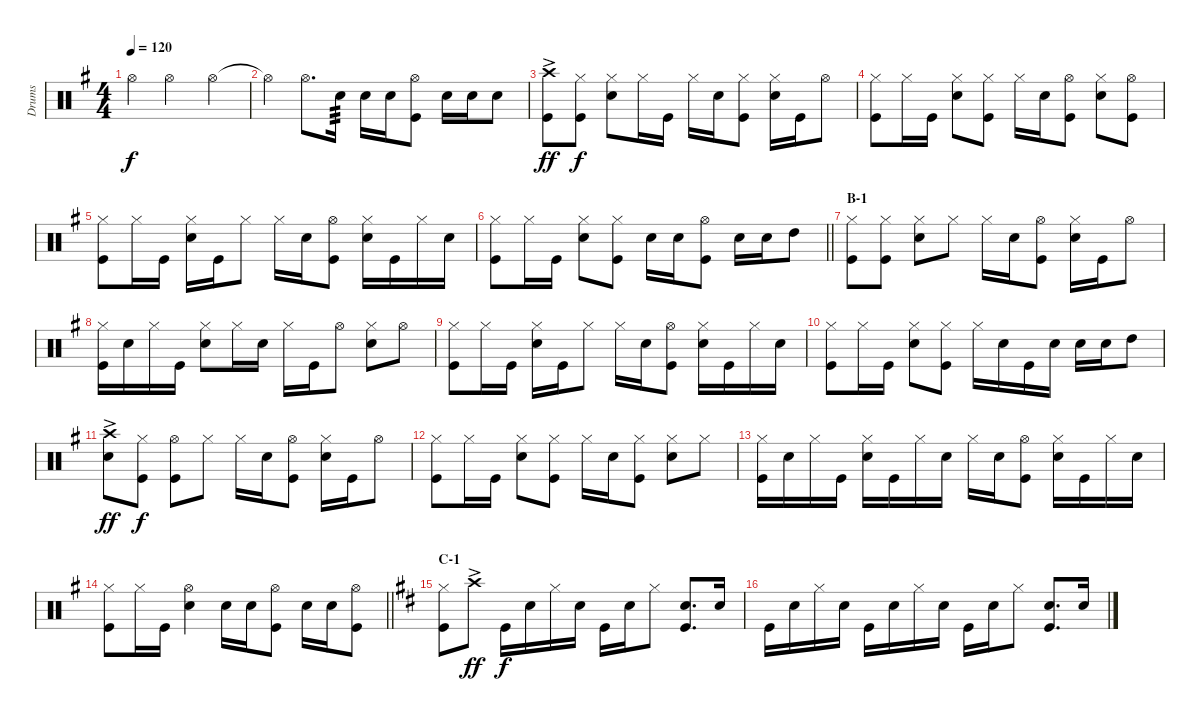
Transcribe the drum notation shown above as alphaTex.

\track ("Drums" "Drums") {instrument percussion}
\staff {score}
\articulation defaults
\ts (4 4)
\tempo 120
\clef neutral
\ks g "Hi-Hat (open)"{t}.4{dy f} "Hi-Hat (open)".2 "Hi-Hat (open)".4
|
"Hi-Hat (open)"{t}.4 "Hi-Hat (open)".8{d} "Snare (hit) 2".16{tp 3} "Snare (hit) 2".16 "Snare (hit) 2".16 ("Hi-Hat (open)" "Kick (hit)").8 "Snare (hit) 2".16 "Snare (hit) 2".16 "Snare (hit) 2".8 |
("Crash high (hit)"{ac} "Kick (hit)").8{dy ff} ("Kick (hit)" "Hi-Hat (closed)").8{dy f} ("Hi-Hat (closed)" "Snare (hit) 2").8 "Hi-Hat (closed)".16 "Kick (hit)".16 "Hi-Hat (closed)".16 "Snare (hit) 2".16 ("Hi-Hat (closed)" "Kick (hit)").8 ("Hi-Hat (closed)" "Snare (hit) 2").16 "Kick (hit)".16 "Hi-Hat (open)".8 |
("Hi-Hat (closed)" "Kick (hit)").8 "Hi-Hat (closed)".16 "Kick (hit)".16 ("Hi-Hat (closed)" "Snare (hit) 2").8 ("Kick (hit)" "Hi-Hat (closed)").8 "Hi-Hat (closed)".16 "Snare (hit) 2".16 ("Hi-Hat (open)" "Kick (hit)").8 ("Hi-Hat (closed)" "Snare (hit) 2").8 ("Kick (hit)" "Hi-Hat (open)").8 |
("Kick (hit)" "Hi-Hat (closed)").8 "Hi-Hat (closed)".16 "Kick (hit)".16 ("Hi-Hat (closed)" "Snare (hit) 2").16 "Kick (hit)".16 "Hi-Hat (closed)".8 "Hi-Hat (closed)".16 "Snare (hit) 2".16 ("Hi-Hat (open)" "Kick (hit)").8 ("Hi-Hat (closed)" "Snare (hit) 2").16 "Kick (hit)".16 "Hi-Hat (closed)".16 "Snare (hit) 2".16 |
\barLineRight lightlight
("Hi-Hat (closed)" "Kick (hit)").8 "Hi-Hat (closed)".16 "Kick (hit)".16 ("Hi-Hat (closed)" "Snare (hit) 2").8 ("Hi-Hat (closed)" "Kick (hit)").8 "Snare (hit) 2".16 "Snare (hit) 2".16 ("Hi-Hat (open)" "Kick (hit)").8 "Snare (hit) 2".16 "Snare (hit) 2".16 "High Tom (hit)".8 |
\section ("" "B-1")
("Hi-Hat (closed)" "Kick (hit)").8 ("Hi-Hat (closed)" "Kick (hit)").8 ("Hi-Hat (closed)" "Snare (hit) 2").8 "Hi-Hat (closed)".8 "Hi-Hat (closed)".16 "Snare (hit) 2".16 ("Hi-Hat (open)" "Kick (hit)").8 ("Hi-Hat (closed)" "Snare (hit) 2").16 "Kick (hit)".16 "Hi-Hat (open)".8 |
("Hi-Hat (closed)" "Kick (hit)").16 "Snare (hit) 2".16 "Hi-Hat (closed)".16 "Kick (hit)".16 ("Hi-Hat (closed)" "Snare (hit) 2").8 "Hi-Hat (closed)".16 "Snare (hit) 2".16 "Hi-Hat (closed)".16 "Kick (hit)".16 "Hi-Hat (open)".8 ("Hi-Hat (closed)" "Snare (hit) 2").8 "Hi-Hat (open)".8 |
("Hi-Hat (closed)" "Kick (hit)").8 "Hi-Hat (closed)".16 "Kick (hit)".16 ("Hi-Hat (closed)" "Snare (hit) 2").16 "Kick (hit)".16 "Hi-Hat (closed)".8 "Hi-Hat (closed)".16 "Snare (hit) 2".16 ("Hi-Hat (open)" "Kick (hit)").8 ("Hi-Hat (closed)" "Snare (hit) 2").16 "Kick (hit)".16 "Hi-Hat (closed)".16 "Snare (hit) 2".16 |
("Hi-Hat (closed)" "Kick (hit)").8 "Hi-Hat (closed)".16 "Kick (hit)".16 ("Hi-Hat (closed)" "Snare (hit) 2").8 ("Hi-Hat (closed)" "Kick (hit)").8 "Hi-Hat (closed)".16 "Snare (hit) 2".16 "Kick (hit)".16 "Snare (hit) 2".16 "Snare (hit) 2".16 "Snare (hit) 2".16 "High Tom (hit)".8 |
("Crash high (hit)"{ac} "Snare (hit) 2").8{dy ff} ("Hi-Hat (closed)" "Kick (hit)").8{dy f} ("Kick (hit)" "Hi-Hat (open)").8 "Hi-Hat (closed)".8 "Hi-Hat (closed)".16 "Snare (hit) 2".16 ("Kick (hit)" "Hi-Hat (open)").8 ("Hi-Hat (closed)" "Snare (hit) 2").16 "Kick (hit)".16 "Hi-Hat (open)".8 |
("Hi-Hat (closed)" "Kick (hit)").8 "Hi-Hat (closed)".16 "Kick (hit)".16 ("Hi-Hat (closed)" "Snare (hit) 2").8 ("Hi-Hat (closed)" "Kick (hit)").8 "Hi-Hat (closed)".16 "Snare (hit) 2".16 ("Hi-Hat (closed)" "Kick (hit)").8 ("Hi-Hat (closed)" "Snare (hit) 2").8 "Hi-Hat (closed)".8 |
("Hi-Hat (closed)" "Kick (hit)").16 "Snare (hit) 2".16 "Hi-Hat (closed)".16 "Kick (hit)".16 ("Hi-Hat (closed)" "Snare (hit) 2").16 "Kick (hit)".16 "Hi-Hat (closed)".16 "Snare (hit) 2".16 "Hi-Hat (closed)".16 "Snare (hit) 2".16 ("Hi-Hat (open)" "Kick (hit)").8 ("Hi-Hat (closed)" "Snare (hit) 2").16 "Kick (hit)".16 "Hi-Hat (closed)".16 "Snare (hit) 2".16 |
\barLineRight lightlight
("Hi-Hat (closed)" "Kick (hit)").8 "Hi-Hat (closed)".16 "Kick (hit)".16 ("Hi-Hat (open)" "Snare (hit) 2").4 "Snare (hit) 2".16 "Snare (hit) 2".16 ("Hi-Hat (open)" "Kick (hit)").8 "Snare (hit) 2".16 "Snare (hit) 2".16 ("Hi-Hat (open)" "Kick (hit)").8 |
\section ("" "C-1")
\ks d
("Hi-Hat (closed)" "Kick (hit)").8 "Crash high (hit)"{ac}.8{dy ff} "Kick (hit)".16{dy f} "Snare (hit) 2".16 "Hi-Hat (closed)".16 "Snare (hit) 2".16 "Kick (hit)".16 "Snare (hit) 2".16 "Hi-Hat (closed)".8 ("Kick (hit)" "Snare (hit) 2").8{d} "Snare (hit) 2".16 |
"Kick (hit)".16 "Snare (hit) 2".16 "Hi-Hat (closed)".16 "Snare (hit) 2".16 "Kick (hit)".16 "Snare (hit) 2".16 "Hi-Hat (closed)".16 "Snare (hit) 2".16 "Kick (hit)".16 "Snare (hit) 2".16 "Hi-Hat (closed)".8 ("Kick (hit)" "Snare (hit) 2").8{d} "Snare (hit) 2".16
